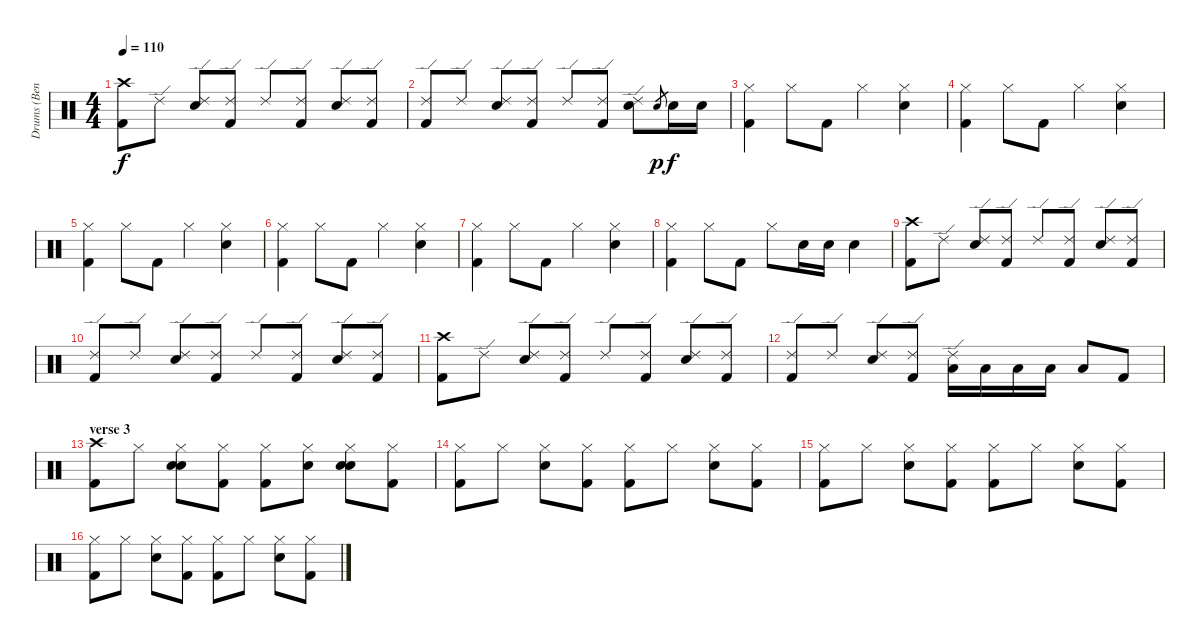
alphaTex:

\track ("Drums (Bengerg)" "Drums (Ben") {instrument percussion}
\staff {score}
\articulation defaults
\ts (4 4)
\tempo 110
\clef neutral
\ks c
("Crash high (hit)" "Kick (hit) 2").8{dy f} "Ride (edge) 2".8 ("Ride (edge) 2" "Electric Snare (hit)").8 ("Ride (edge) 2" "Kick (hit) 2").8 "Ride (edge) 2".8 ("Ride (edge) 2" "Kick (hit) 2").8 ("Ride (edge) 2" "Electric Snare (hit)").8 ("Ride (edge) 2" "Kick (hit) 2").8 |
("Ride (edge) 2" "Kick (hit) 2").8 "Ride (edge) 2".8 ("Ride (edge) 2" "Electric Snare (hit)").8 ("Ride (edge) 2" "Kick (hit) 2").8 "Ride (edge) 2".8 ("Ride (edge) 2" "Kick (hit) 2").8 ("Ride (edge) 2" "Electric Snare (hit)").8 "Electric Snare (hit)".8{gr dy p} "Electric Snare (hit)".16{dy f} "Electric Snare (hit)".16 |
("Hi-Hat (closed)" "Kick (hit) 2").4 "Hi-Hat (closed)".8 "Kick (hit) 2".8 "Hi-Hat (closed)".4 ("Hi-Hat (closed)" "Electric Snare (hit)").4 |
("Hi-Hat (closed)" "Kick (hit) 2").4 "Hi-Hat (closed)".8 "Kick (hit) 2".8 "Hi-Hat (closed)".4 ("Hi-Hat (closed)" "Electric Snare (hit)").4 |
("Hi-Hat (closed)" "Kick (hit) 2").4 "Hi-Hat (closed)".8 "Kick (hit) 2".8 "Hi-Hat (closed)".4 ("Hi-Hat (closed)" "Electric Snare (hit)").4 |
("Hi-Hat (closed)" "Kick (hit) 2").4 "Hi-Hat (closed)".8 "Kick (hit) 2".8 "Hi-Hat (closed)".4 ("Hi-Hat (closed)" "Electric Snare (hit)").4 |
("Hi-Hat (closed)" "Kick (hit) 2").4 "Hi-Hat (closed)".8 "Kick (hit) 2".8 "Hi-Hat (closed)".4 ("Hi-Hat (closed)" "Electric Snare (hit)").4 |
("Hi-Hat (closed)" "Kick (hit) 2").4 "Hi-Hat (closed)".8 "Kick (hit) 2".8 "Hi-Hat (closed)".8 "Electric Snare (hit)".16 "Electric Snare (hit)".16 "Electric Snare (hit)".4 |
("Crash high (hit)" "Kick (hit) 2").8 "Ride (edge) 2".8 ("Ride (edge) 2" "Electric Snare (hit)").8 ("Ride (edge) 2" "Kick (hit) 2").8 "Ride (edge) 2".8 ("Ride (edge) 2" "Kick (hit) 2").8 ("Ride (edge) 2" "Electric Snare (hit)").8 ("Ride (edge) 2" "Kick (hit) 2").8 |
("Ride (edge) 2" "Kick (hit) 2").8 "Ride (edge) 2".8 ("Ride (edge) 2" "Electric Snare (hit)").8 ("Ride (edge) 2" "Kick (hit) 2").8 "Ride (edge) 2".8 ("Ride (edge) 2" "Kick (hit) 2").8 ("Ride (edge) 2" "Electric Snare (hit)").8 ("Ride (edge) 2" "Kick (hit) 2").8 |
("Crash high (hit)" "Kick (hit) 2").8 "Ride (edge) 2".8 ("Ride (edge) 2" "Electric Snare (hit)").8 ("Ride (edge) 2" "Kick (hit) 2").8 "Ride (edge) 2".8 ("Ride (edge) 2" "Kick (hit) 2").8 ("Ride (edge) 2" "Electric Snare (hit)").8 ("Ride (edge) 2" "Kick (hit) 2").8 |
("Ride (edge) 2" "Kick (hit) 2").8 "Ride (edge) 2".8 ("Ride (edge) 2" "Electric Snare (hit)").8 ("Ride (edge) 2" "Kick (hit) 2").8 ("Ride (edge) 2" "Low Tom (hit)").16 "Low Tom (hit)".16 "Low Tom (hit)".16 "Low Tom (hit)".16 "Low Tom (hit)".8 "Kick (hit) 2".8 |
\section ("" "verse 3")
("Crash high (hit)" "Kick (hit) 2").8 "Hi-Hat (closed)".8 ("Hand Clap (hit)" "Hi-Hat (closed)" "Electric Snare (hit)").8 ("Hi-Hat (closed)" "Kick (hit) 2").8 ("Hi-Hat (closed)" "Kick (hit) 2").8 ("Hand Clap (hit)" "Hi-Hat (closed)").8 ("Hand Clap (hit)" "Hi-Hat (closed)" "Electric Snare (hit)").8 ("Hi-Hat (closed)" "Kick (hit) 2").8 |
("Hi-Hat (closed)" "Kick (hit) 2").8 "Hi-Hat (closed)".8 ("Hi-Hat (closed)" "Electric Snare (hit)").8 ("Hi-Hat (closed)" "Kick (hit) 2").8 ("Hi-Hat (closed)" "Kick (hit) 2").8 "Hi-Hat (closed)".8 ("Hi-Hat (closed)" "Electric Snare (hit)").8 ("Hi-Hat (closed)" "Kick (hit) 2").8 |
("Hi-Hat (closed)" "Kick (hit) 2").8 "Hi-Hat (closed)".8 ("Hi-Hat (closed)" "Electric Snare (hit)").8 ("Hi-Hat (closed)" "Kick (hit) 2").8 ("Hi-Hat (closed)" "Kick (hit) 2").8 "Hi-Hat (closed)".8 ("Hi-Hat (closed)" "Electric Snare (hit)").8 ("Hi-Hat (closed)" "Kick (hit) 2").8 |
("Hi-Hat (closed)" "Kick (hit) 2").8 "Hi-Hat (closed)".8 ("Hi-Hat (closed)" "Electric Snare (hit)").8 ("Hi-Hat (closed)" "Kick (hit) 2").8 ("Hi-Hat (closed)" "Kick (hit) 2").8 "Hi-Hat (closed)".8 ("Hi-Hat (closed)" "Electric Snare (hit)").8 ("Hi-Hat (closed)" "Kick (hit) 2").8
